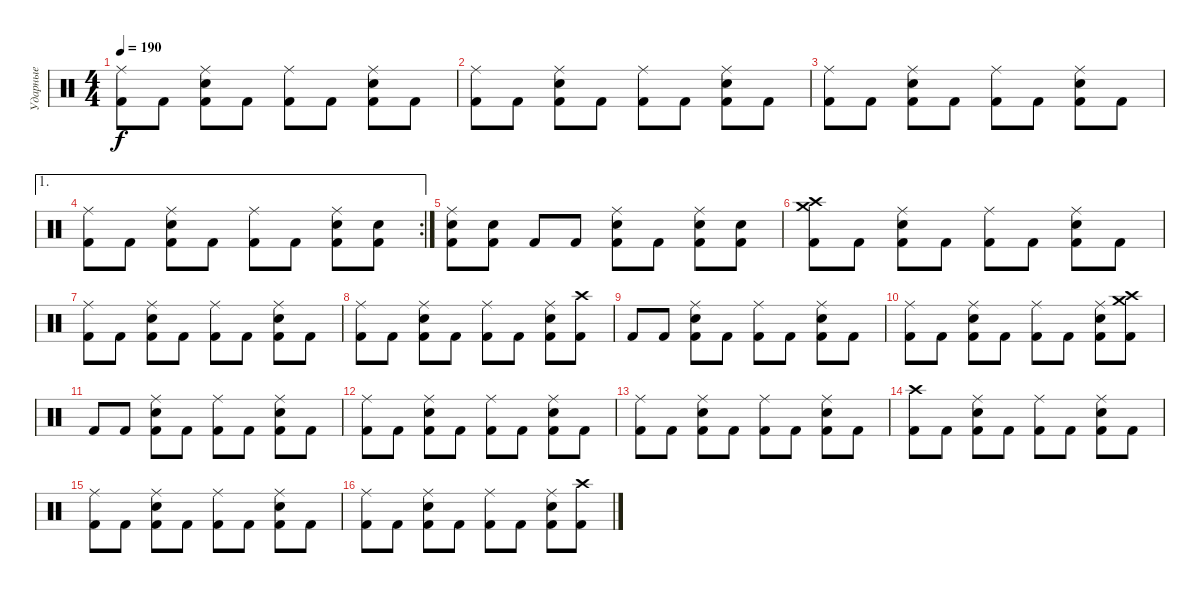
\track ("Ударные" "Ударные") {instrument percussion}
\staff
\articulation defaults
\ts (4 4)
\tempo 190
\clef neutral
\ks c
("Ride (middle)" "Kick (hit) 2").8{dy f} "Kick (hit) 2".8 ("Ride (middle)" "Snare (hit) 2" "Kick (hit) 2").8 "Kick (hit) 2".8 ("Ride (middle)" "Kick (hit) 2").8 "Kick (hit) 2".8 ("Ride (middle)" "Snare (hit) 2" "Kick (hit) 2").8 "Kick (hit) 2".8 |
("Ride (middle)" "Kick (hit) 2").8 "Kick (hit) 2".8 ("Ride (middle)" "Snare (hit) 2" "Kick (hit) 2").8 "Kick (hit) 2".8 ("Ride (middle)" "Kick (hit) 2").8 "Kick (hit) 2".8 ("Ride (middle)" "Snare (hit) 2" "Kick (hit) 2").8 "Kick (hit) 2".8 |
("Ride (middle)" "Kick (hit) 2").8 "Kick (hit) 2".8 ("Ride (middle)" "Snare (hit) 2" "Kick (hit) 2").8 "Kick (hit) 2".8 ("Ride (middle)" "Kick (hit) 2").8 "Kick (hit) 2".8 ("Ride (middle)" "Snare (hit) 2" "Kick (hit) 2").8 "Kick (hit) 2".8 |
\ae 1
\rc 2
("Ride (middle)" "Kick (hit) 2").8 "Kick (hit) 2".8 ("Ride (middle)" "Snare (hit) 2" "Kick (hit) 2").8 "Kick (hit) 2".8 ("Ride (middle)" "Kick (hit) 2").8 "Kick (hit) 2".8 ("Ride (middle)" "Snare (hit) 2" "Kick (hit) 2").8 ("Snare (hit) 2" "Kick (hit) 2").8 |
("Ride (middle)" "Snare (hit) 2" "Kick (hit) 2").8 ("Snare (hit) 2" "Kick (hit) 2").8 "Kick (hit) 2".8 "Kick (hit) 2".8 ("Ride (middle)" "Snare (hit) 2" "Kick (hit) 2").8 "Kick (hit) 2".8 ("Ride (middle)" "Snare (hit) 2" "Kick (hit) 2").8 ("Snare (hit) 2" "Kick (hit) 2").8 |
("Crash high (hit)" "Crash medium (hit)" "Kick (hit) 2").8 "Kick (hit) 2".8 ("Ride (middle)" "Snare (hit) 2" "Kick (hit) 2").8 "Kick (hit) 2".8 ("Ride (middle)" "Kick (hit) 2").8 "Kick (hit) 2".8 ("Ride (middle)" "Snare (hit) 2" "Kick (hit) 2").8 "Kick (hit) 2".8 |
("Ride (middle)" "Kick (hit) 2").8 "Kick (hit) 2".8 ("Ride (middle)" "Snare (hit) 2" "Kick (hit) 2").8 "Kick (hit) 2".8 ("Ride (middle)" "Kick (hit) 2").8 "Kick (hit) 2".8 ("Ride (middle)" "Snare (hit) 2" "Kick (hit) 2").8 "Kick (hit) 2".8 |
("Ride (middle)" "Kick (hit) 2").8 "Kick (hit) 2".8 ("Ride (middle)" "Snare (hit) 2" "Kick (hit) 2").8 "Kick (hit) 2".8 ("Ride (middle)" "Kick (hit) 2").8 "Kick (hit) 2".8 ("Ride (middle)" "Snare (hit) 2" "Kick (hit) 2").8 ("Crash high (hit)" "Kick (hit) 2").8 |
"Kick (hit) 2".8 "Kick (hit) 2".8 ("Ride (middle)" "Snare (hit) 2" "Kick (hit) 2").8 "Kick (hit) 2".8 ("Ride (middle)" "Kick (hit) 2").8 "Kick (hit) 2".8 ("Ride (middle)" "Snare (hit) 2" "Kick (hit) 2").8 "Kick (hit) 2".8 |
("Ride (middle)" "Kick (hit) 2").8 "Kick (hit) 2".8 ("Ride (middle)" "Snare (hit) 2" "Kick (hit) 2").8 "Kick (hit) 2".8 ("Ride (middle)" "Kick (hit) 2").8 "Kick (hit) 2".8 ("Ride (middle)" "Snare (hit) 2" "Kick (hit) 2").8 ("Crash high (hit)" "Crash medium (hit)" "Kick (hit) 2").8 |
"Kick (hit) 2".8 "Kick (hit) 2".8 ("Ride (middle)" "Snare (hit) 2" "Kick (hit) 2").8 "Kick (hit) 2".8 ("Ride (middle)" "Kick (hit) 2").8 "Kick (hit) 2".8 ("Ride (middle)" "Snare (hit) 2" "Kick (hit) 2").8 "Kick (hit) 2".8 |
("Ride (middle)" "Kick (hit) 2").8 "Kick (hit) 2".8 ("Ride (middle)" "Snare (hit) 2" "Kick (hit) 2").8 "Kick (hit) 2".8 ("Ride (middle)" "Kick (hit) 2").8 "Kick (hit) 2".8 ("Ride (middle)" "Snare (hit) 2" "Kick (hit) 2").8 "Kick (hit) 2".8 |
("Ride (middle)" "Kick (hit) 2").8 "Kick (hit) 2".8 ("Ride (middle)" "Snare (hit) 2" "Kick (hit) 2").8 "Kick (hit) 2".8 ("Ride (middle)" "Kick (hit) 2").8 "Kick (hit) 2".8 ("Ride (middle)" "Snare (hit) 2" "Kick (hit) 2").8 "Kick (hit) 2".8 |
("Crash high (hit)" "Kick (hit) 2").8 "Kick (hit) 2".8 ("Ride (middle)" "Snare (hit) 2" "Kick (hit) 2").8 "Kick (hit) 2".8 ("Ride (middle)" "Kick (hit) 2").8 "Kick (hit) 2".8 ("Ride (middle)" "Snare (hit) 2" "Kick (hit) 2").8 "Kick (hit) 2".8 |
("Ride (middle)" "Kick (hit) 2").8 "Kick (hit) 2".8 ("Ride (middle)" "Snare (hit) 2" "Kick (hit) 2").8 "Kick (hit) 2".8 ("Ride (middle)" "Kick (hit) 2").8 "Kick (hit) 2".8 ("Ride (middle)" "Snare (hit) 2" "Kick (hit) 2").8 "Kick (hit) 2".8 |
("Ride (middle)" "Kick (hit) 2").8 "Kick (hit) 2".8 ("Ride (middle)" "Snare (hit) 2" "Kick (hit) 2").8 "Kick (hit) 2".8 ("Ride (middle)" "Kick (hit) 2").8 "Kick (hit) 2".8 ("Ride (middle)" "Snare (hit) 2" "Kick (hit) 2").8 ("Crash high (hit)" "Kick (hit) 2").8
